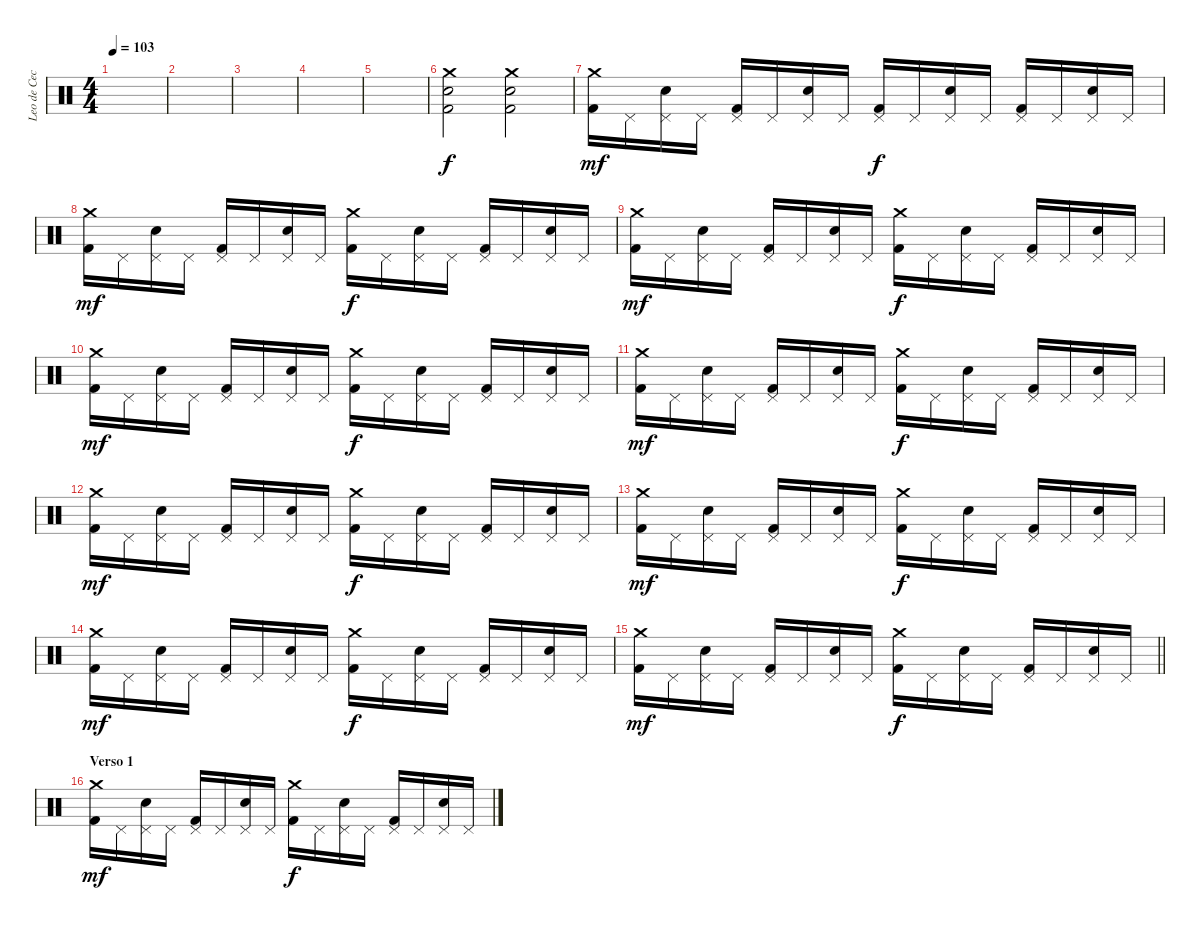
\track ("Leo de Cecco" "Leo de Cec") {instrument percussion}
\staff {score}
\articulation defaults
\ts (4 4)
\tempo 103
\clef neutral
\ks c
|
|
|
|
|
("Crash medium (hit)" "Kick (hit) 2" "Snare (hit) 2").2 ("Crash medium (hit)" "Kick (hit) 2" "Snare (hit) 2").2 |
("Crash medium (hit)" "Kick (hit) 2").16{dy mf} "Pedal Hi-Hat (hit)".16 ("Pedal Hi-Hat (hit)" "Snare (hit) 2").16 "Pedal Hi-Hat (hit)".16 ("Pedal Hi-Hat (hit)" "Kick (hit) 2").16 "Pedal Hi-Hat (hit)".16 ("Pedal Hi-Hat (hit)" "Snare (hit) 2").16 "Pedal Hi-Hat (hit)".16 ("Pedal Hi-Hat (hit)" "Kick (hit) 2").16{dy f} "Pedal Hi-Hat (hit)".16 ("Pedal Hi-Hat (hit)" "Snare (hit) 2").16 "Pedal Hi-Hat (hit)".16 ("Pedal Hi-Hat (hit)" "Kick (hit) 2").16 "Pedal Hi-Hat (hit)".16 ("Pedal Hi-Hat (hit)" "Snare (hit) 2").16 "Pedal Hi-Hat (hit)".16 |
("Crash medium (hit)" "Kick (hit) 2").16{dy mf} "Pedal Hi-Hat (hit)".16 ("Pedal Hi-Hat (hit)" "Snare (hit) 2").16 "Pedal Hi-Hat (hit)".16 ("Pedal Hi-Hat (hit)" "Kick (hit) 2").16 "Pedal Hi-Hat (hit)".16 ("Pedal Hi-Hat (hit)" "Snare (hit) 2").16 "Pedal Hi-Hat (hit)".16 ("Crash medium (hit)" "Kick (hit) 2").16{dy f} "Pedal Hi-Hat (hit)".16 ("Pedal Hi-Hat (hit)" "Snare (hit) 2").16 "Pedal Hi-Hat (hit)".16 ("Pedal Hi-Hat (hit)" "Kick (hit) 2").16 "Pedal Hi-Hat (hit)".16 ("Pedal Hi-Hat (hit)" "Snare (hit) 2").16 "Pedal Hi-Hat (hit)".16 |
("Crash medium (hit)" "Kick (hit) 2").16{dy mf} "Pedal Hi-Hat (hit)".16 ("Pedal Hi-Hat (hit)" "Snare (hit) 2").16 "Pedal Hi-Hat (hit)".16 ("Pedal Hi-Hat (hit)" "Kick (hit) 2").16 "Pedal Hi-Hat (hit)".16 ("Pedal Hi-Hat (hit)" "Snare (hit) 2").16 "Pedal Hi-Hat (hit)".16 ("Crash medium (hit)" "Kick (hit) 2").16{dy f} "Pedal Hi-Hat (hit)".16 ("Pedal Hi-Hat (hit)" "Snare (hit) 2").16 "Pedal Hi-Hat (hit)".16 ("Pedal Hi-Hat (hit)" "Kick (hit) 2").16 "Pedal Hi-Hat (hit)".16 ("Pedal Hi-Hat (hit)" "Snare (hit) 2").16 "Pedal Hi-Hat (hit)".16 |
("Crash medium (hit)" "Kick (hit) 2").16{dy mf} "Pedal Hi-Hat (hit)".16 ("Pedal Hi-Hat (hit)" "Snare (hit) 2").16 "Pedal Hi-Hat (hit)".16 ("Pedal Hi-Hat (hit)" "Kick (hit) 2").16 "Pedal Hi-Hat (hit)".16 ("Pedal Hi-Hat (hit)" "Snare (hit) 2").16 "Pedal Hi-Hat (hit)".16 ("Crash medium (hit)" "Kick (hit) 2").16{dy f} "Pedal Hi-Hat (hit)".16 ("Pedal Hi-Hat (hit)" "Snare (hit) 2").16 "Pedal Hi-Hat (hit)".16 ("Pedal Hi-Hat (hit)" "Kick (hit) 2").16 "Pedal Hi-Hat (hit)".16 ("Pedal Hi-Hat (hit)" "Snare (hit) 2").16 "Pedal Hi-Hat (hit)".16 |
("Crash medium (hit)" "Kick (hit) 2").16{dy mf} "Pedal Hi-Hat (hit)".16 ("Pedal Hi-Hat (hit)" "Snare (hit) 2").16 "Pedal Hi-Hat (hit)".16 ("Pedal Hi-Hat (hit)" "Kick (hit) 2").16 "Pedal Hi-Hat (hit)".16 ("Pedal Hi-Hat (hit)" "Snare (hit) 2").16 "Pedal Hi-Hat (hit)".16 ("Crash medium (hit)" "Kick (hit) 2").16{dy f} "Pedal Hi-Hat (hit)".16 ("Pedal Hi-Hat (hit)" "Snare (hit) 2").16 "Pedal Hi-Hat (hit)".16 ("Pedal Hi-Hat (hit)" "Kick (hit) 2").16 "Pedal Hi-Hat (hit)".16 ("Pedal Hi-Hat (hit)" "Snare (hit) 2").16 "Pedal Hi-Hat (hit)".16 |
("Crash medium (hit)" "Kick (hit) 2").16{dy mf} "Pedal Hi-Hat (hit)".16 ("Pedal Hi-Hat (hit)" "Snare (hit) 2").16 "Pedal Hi-Hat (hit)".16 ("Pedal Hi-Hat (hit)" "Kick (hit) 2").16 "Pedal Hi-Hat (hit)".16 ("Pedal Hi-Hat (hit)" "Snare (hit) 2").16 "Pedal Hi-Hat (hit)".16 ("Crash medium (hit)" "Kick (hit) 2").16{dy f} "Pedal Hi-Hat (hit)".16 ("Pedal Hi-Hat (hit)" "Snare (hit) 2").16 "Pedal Hi-Hat (hit)".16 ("Pedal Hi-Hat (hit)" "Kick (hit) 2").16 "Pedal Hi-Hat (hit)".16 ("Pedal Hi-Hat (hit)" "Snare (hit) 2").16 "Pedal Hi-Hat (hit)".16 |
("Crash medium (hit)" "Kick (hit) 2").16{dy mf} "Pedal Hi-Hat (hit)".16 ("Pedal Hi-Hat (hit)" "Snare (hit) 2").16 "Pedal Hi-Hat (hit)".16 ("Pedal Hi-Hat (hit)" "Kick (hit) 2").16 "Pedal Hi-Hat (hit)".16 ("Pedal Hi-Hat (hit)" "Snare (hit) 2").16 "Pedal Hi-Hat (hit)".16 ("Crash medium (hit)" "Kick (hit) 2").16{dy f} "Pedal Hi-Hat (hit)".16 ("Pedal Hi-Hat (hit)" "Snare (hit) 2").16 "Pedal Hi-Hat (hit)".16 ("Pedal Hi-Hat (hit)" "Kick (hit) 2").16 "Pedal Hi-Hat (hit)".16 ("Pedal Hi-Hat (hit)" "Snare (hit) 2").16 "Pedal Hi-Hat (hit)".16 |
("Crash medium (hit)" "Kick (hit) 2").16{dy mf} "Pedal Hi-Hat (hit)".16 ("Pedal Hi-Hat (hit)" "Snare (hit) 2").16 "Pedal Hi-Hat (hit)".16 ("Pedal Hi-Hat (hit)" "Kick (hit) 2").16 "Pedal Hi-Hat (hit)".16 ("Pedal Hi-Hat (hit)" "Snare (hit) 2").16 "Pedal Hi-Hat (hit)".16 ("Crash medium (hit)" "Kick (hit) 2").16{dy f} "Pedal Hi-Hat (hit)".16 ("Pedal Hi-Hat (hit)" "Snare (hit) 2").16 "Pedal Hi-Hat (hit)".16 ("Pedal Hi-Hat (hit)" "Kick (hit) 2").16 "Pedal Hi-Hat (hit)".16 ("Pedal Hi-Hat (hit)" "Snare (hit) 2").16 "Pedal Hi-Hat (hit)".16 |
\barLineRight lightlight
("Crash medium (hit)" "Kick (hit) 2").16{dy mf} "Pedal Hi-Hat (hit)".16 ("Pedal Hi-Hat (hit)" "Snare (hit) 2").16 "Pedal Hi-Hat (hit)".16 ("Pedal Hi-Hat (hit)" "Kick (hit) 2").16 "Pedal Hi-Hat (hit)".16 ("Pedal Hi-Hat (hit)" "Snare (hit) 2").16 "Pedal Hi-Hat (hit)".16 ("Crash medium (hit)" "Kick (hit) 2").16{dy f} "Pedal Hi-Hat (hit)".16 ("Pedal Hi-Hat (hit)" "Snare (hit) 2").16 "Pedal Hi-Hat (hit)".16 ("Pedal Hi-Hat (hit)" "Kick (hit) 2").16 "Pedal Hi-Hat (hit)".16 ("Pedal Hi-Hat (hit)" "Snare (hit) 2").16 "Pedal Hi-Hat (hit)".16 |
\section ("" "Verso 1")
("Crash medium (hit)" "Kick (hit) 2").16{dy mf} "Pedal Hi-Hat (hit)".16 ("Pedal Hi-Hat (hit)" "Snare (hit) 2").16 "Pedal Hi-Hat (hit)".16 ("Pedal Hi-Hat (hit)" "Kick (hit) 2").16 "Pedal Hi-Hat (hit)".16 ("Pedal Hi-Hat (hit)" "Snare (hit) 2").16 "Pedal Hi-Hat (hit)".16 ("Crash medium (hit)" "Kick (hit) 2").16{dy f} "Pedal Hi-Hat (hit)".16 ("Pedal Hi-Hat (hit)" "Snare (hit) 2").16 "Pedal Hi-Hat (hit)".16 ("Pedal Hi-Hat (hit)" "Kick (hit) 2").16 "Pedal Hi-Hat (hit)".16 ("Pedal Hi-Hat (hit)" "Snare (hit) 2").16 "Pedal Hi-Hat (hit)".16
